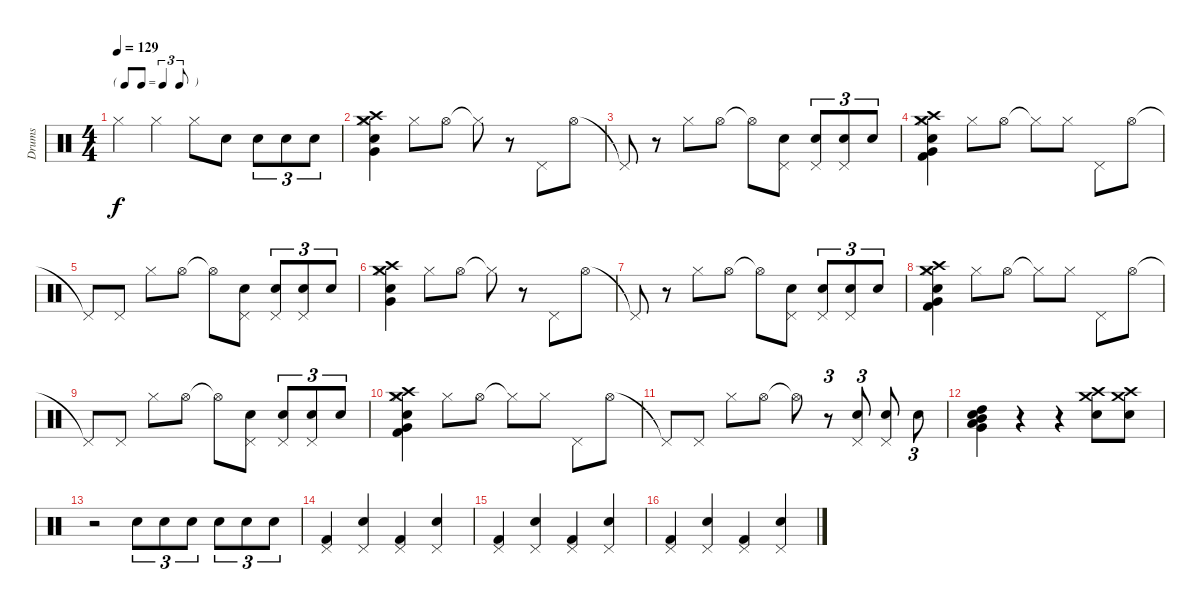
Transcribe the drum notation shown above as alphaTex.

\track ("Drums" "Drums") {instrument percussion}
\staff {score}
\articulation defaults
\ts (4 4)
\tf triplet8th
\tempo 129
\clef neutral
\ks c "Hi-Hat (closed)".4{dy f} "Hi-Hat (closed)".4 "Hi-Hat (closed)".8 "Electric Snare (hit)".8 "Electric Snare (hit)".8{tu (3 2)} "Electric Snare (hit)".8{tu (3 2)} "Electric Snare (hit)".8{tu (3 2)}
|
("Very Low Tom (hit)" "Hi-Hat (closed)" "Crash high (hit)" "Crash medium (hit)" "Electric Snare (hit)").4 "Hi-Hat (closed)".8 "Hi-Hat (open)".8 "Hi-Hat (closed)"{t}.8 r.8 "Pedal Hi-Hat (hit)".8 "Hi-Hat (open)".8 |
"Pedal Hi-Hat (hit)"{t}.8 r.8 "Hi-Hat (closed)".8 "Hi-Hat (open)".8 "Hi-Hat (open)"{t}.8 ("Pedal Hi-Hat (hit)" "Electric Snare (hit)").8 ("Pedal Hi-Hat (hit)" "Electric Snare (hit)").8{tu (3 2)} ("Pedal Hi-Hat (hit)" "Electric Snare (hit)").8{tu (3 2)} "Electric Snare (hit)".8{tu (3 2)} |
("Very Low Tom (hit)" "Kick (hit) 2" "Crash medium (hit)" "Hi-Hat (closed)" "Crash high (hit)" "Electric Snare (hit)").4 "Hi-Hat (closed)".8 "Hi-Hat (open)".8 "Hi-Hat (closed)"{t}.8 "Hi-Hat (closed)".8 "Pedal Hi-Hat (hit)".8 "Hi-Hat (open)".8 |
"Pedal Hi-Hat (hit)"{t}.8 "Pedal Hi-Hat (hit)".8 "Hi-Hat (closed)".8 "Hi-Hat (open)".8 "Hi-Hat (open)"{t}.8 ("Pedal Hi-Hat (hit)" "Electric Snare (hit)").8 ("Pedal Hi-Hat (hit)" "Electric Snare (hit)").8{tu (3 2)} ("Pedal Hi-Hat (hit)" "Electric Snare (hit)").8{tu (3 2)} "Electric Snare (hit)".8{tu (3 2)} |
("Very Low Tom (hit)" "Hi-Hat (closed)" "Crash high (hit)" "Crash medium (hit)" "Electric Snare (hit)").4 "Hi-Hat (closed)".8 "Hi-Hat (open)".8 "Hi-Hat (closed)"{t}.8 r.8 "Pedal Hi-Hat (hit)".8 "Hi-Hat (open)".8 |
"Pedal Hi-Hat (hit)"{t}.8 r.8 "Hi-Hat (closed)".8 "Hi-Hat (open)".8 "Hi-Hat (open)"{t}.8 ("Pedal Hi-Hat (hit)" "Electric Snare (hit)").8 ("Pedal Hi-Hat (hit)" "Electric Snare (hit)").8{tu (3 2)} ("Pedal Hi-Hat (hit)" "Electric Snare (hit)").8{tu (3 2)} "Electric Snare (hit)".8{tu (3 2)} |
("Very Low Tom (hit)" "Kick (hit) 2" "Crash medium (hit)" "Hi-Hat (closed)" "Crash high (hit)" "Electric Snare (hit)").4 "Hi-Hat (closed)".8 "Hi-Hat (open)".8 "Hi-Hat (closed)"{t}.8 "Hi-Hat (closed)".8 "Pedal Hi-Hat (hit)".8 "Hi-Hat (open)".8 |
"Pedal Hi-Hat (hit)"{t}.8 "Pedal Hi-Hat (hit)".8 "Hi-Hat (closed)".8 "Hi-Hat (open)".8 "Hi-Hat (open)"{t}.8 ("Pedal Hi-Hat (hit)" "Electric Snare (hit)").8 ("Pedal Hi-Hat (hit)" "Electric Snare (hit)").8{tu (3 2)} ("Pedal Hi-Hat (hit)" "Electric Snare (hit)").8{tu (3 2)} "Electric Snare (hit)".8{tu (3 2)} |
("Very Low Tom (hit)" "Kick (hit) 2" "Crash medium (hit)" "Hi-Hat (closed)" "Crash high (hit)" "Electric Snare (hit)").4 "Hi-Hat (closed)".8 "Hi-Hat (open)".8 "Hi-Hat (closed)"{t}.8 "Hi-Hat (closed)".8 "Pedal Hi-Hat (hit)".8 "Hi-Hat (open)".8 |
"Pedal Hi-Hat (hit)"{t}.8 "Pedal Hi-Hat (hit)".8 "Hi-Hat (closed)".8 "Hi-Hat (open)".8 "Hi-Hat (open)"{t}.8 r.8{tu (3 2)} ("Pedal Hi-Hat (hit)" "Electric Snare (hit)").8{tu (3 2)} ("Pedal Hi-Hat (hit)" "Electric Snare (hit)").8 "Electric Snare (hit)".8{tu (3 2)} |
("High Tom (hit)" "Low Tom (hit)" "Very Low Tom (hit)" "Electric Snare (hit)" "Mid Tom (hit)").4 r.4 r.4 ("Crash high (hit)" "Crash medium (hit)" "Electric Snare (hit)").8 ("Crash high (hit)" "Crash medium (hit)" "Electric Snare (hit)").8 |
r.2 "Electric Snare (hit)".8{tu (3 2)} "Electric Snare (hit)".8{tu (3 2)} "Electric Snare (hit)".8{tu (3 2)} "Electric Snare (hit)".8{tu (3 2)} "Electric Snare (hit)".8{tu (3 2)} "Electric Snare (hit)".8{tu (3 2)} |
("Pedal Hi-Hat (hit)" "Kick (hit) 2").4 ("Pedal Hi-Hat (hit)" "Electric Snare (hit)").4 ("Pedal Hi-Hat (hit)" "Kick (hit) 2").4 ("Pedal Hi-Hat (hit)" "Electric Snare (hit)").4 |
("Pedal Hi-Hat (hit)" "Kick (hit) 2").4 ("Pedal Hi-Hat (hit)" "Electric Snare (hit)").4 ("Pedal Hi-Hat (hit)" "Kick (hit) 2").4 ("Pedal Hi-Hat (hit)" "Electric Snare (hit)").4 |
("Pedal Hi-Hat (hit)" "Kick (hit) 2").4 ("Pedal Hi-Hat (hit)" "Electric Snare (hit)").4 ("Pedal Hi-Hat (hit)" "Kick (hit) 2").4 ("Pedal Hi-Hat (hit)" "Electric Snare (hit)").4
